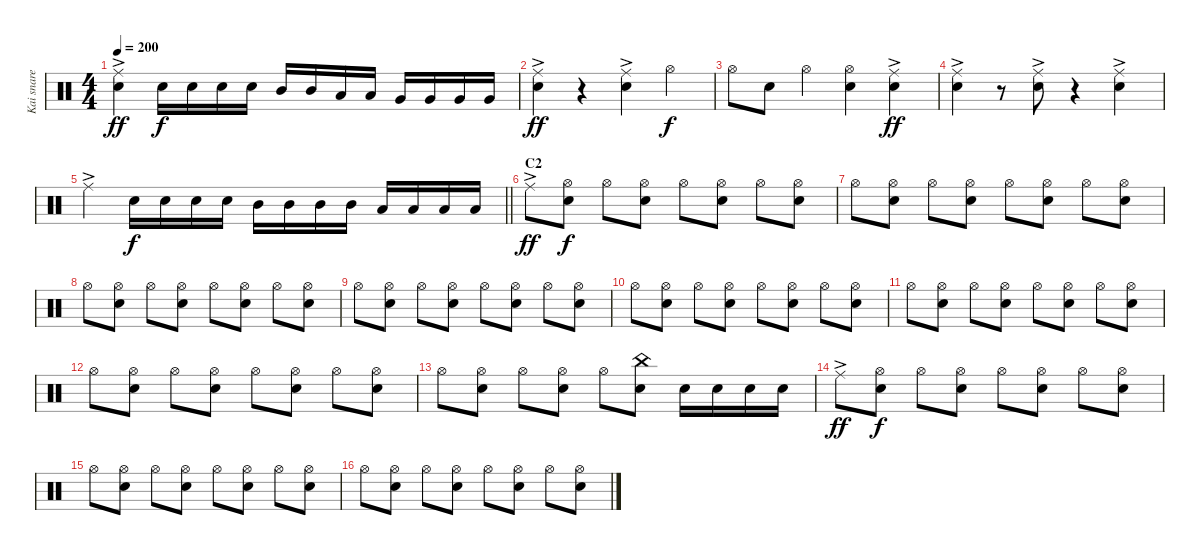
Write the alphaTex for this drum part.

\track ("Kai snare" "Kai snare") {instrument percussion}
\staff {score}
\articulation defaults
\ts (4 4)
\tempo 200
\clef neutral
\ks c
("Ride (middle)"{ac} "Snare (hit) 2").4{dy ff} "Snare (hit) 2".16{dy f} "Snare (hit) 2".16 "Snare (hit) 2".16 "Snare (hit) 2".16 "Mid Tom (hit)".16 "Mid Tom (hit)".16 "Low Tom (hit)".16 "Low Tom (hit)".16 "Very Low Tom (hit)".16 "Very Low Tom (hit)".16 "Very Low Tom (hit)".16 "Very Low Tom (hit)".16 |
("Ride (middle)"{ac} "Snare (hit) 2").4{dy ff} r.4 ("Ride (middle)"{ac} "Snare (hit) 2").4 "Hi-Hat (open)".4{dy f} |
"Hi-Hat (open)".8 "Snare (hit) 2".8 "Hi-Hat (open)".4 ("Hi-Hat (open)" "Snare (hit) 2").4 ("Ride (middle)"{ac} "Snare (hit) 2").4{dy ff} |
("Ride (middle)"{ac} "Snare (hit) 2").4 r.8 ("Ride (middle)"{ac} "Snare (hit) 2").8 r.4 ("Ride (middle)"{ac} "Snare (hit) 2").4 |
\barLineRight lightlight "Ride (middle)"{ac}.4 "Snare (hit) 2".16{dy f} "Snare (hit) 2".16 "Snare (hit) 2".16 "Snare (hit) 2".16 "Mid Tom (hit)".16 "Mid Tom (hit)".16 "Mid Tom (hit)".16 "Mid Tom (hit)".16 "Low Tom (hit)".16 "Low Tom (hit)".16 "Low Tom (hit)".16 "Low Tom (hit)".16
|
\section ("" "C2")
"Ride (middle)"{ac}.8{dy ff} ("Hi-Hat (open)" "Snare (hit) 2").8{dy f} "Hi-Hat (open)".8 ("Hi-Hat (open)" "Snare (hit) 2").8 "Hi-Hat (open)".8 ("Hi-Hat (open)" "Snare (hit) 2").8 "Hi-Hat (open)".8 ("Hi-Hat (open)" "Snare (hit) 2").8 |
"Hi-Hat (open)".8 ("Hi-Hat (open)" "Snare (hit) 2").8 "Hi-Hat (open)".8 ("Hi-Hat (open)" "Snare (hit) 2").8 "Hi-Hat (open)".8 ("Hi-Hat (open)" "Snare (hit) 2").8 "Hi-Hat (open)".8 ("Hi-Hat (open)" "Snare (hit) 2").8 |
"Hi-Hat (open)".8 ("Hi-Hat (open)" "Snare (hit) 2").8 "Hi-Hat (open)".8 ("Hi-Hat (open)" "Snare (hit) 2").8 "Hi-Hat (open)".8 ("Hi-Hat (open)" "Snare (hit) 2").8 "Hi-Hat (open)".8 ("Hi-Hat (open)" "Snare (hit) 2").8 |
"Hi-Hat (open)".8 ("Hi-Hat (open)" "Snare (hit) 2").8 "Hi-Hat (open)".8 ("Hi-Hat (open)" "Snare (hit) 2").8 "Hi-Hat (open)".8 ("Hi-Hat (open)" "Snare (hit) 2").8 "Hi-Hat (open)".8 ("Hi-Hat (open)" "Snare (hit) 2").8 |
"Hi-Hat (open)".8 ("Hi-Hat (open)" "Snare (hit) 2").8 "Hi-Hat (open)".8 ("Hi-Hat (open)" "Snare (hit) 2").8 "Hi-Hat (open)".8 ("Hi-Hat (open)" "Snare (hit) 2").8 "Hi-Hat (open)".8 ("Hi-Hat (open)" "Snare (hit) 2").8 |
"Hi-Hat (open)".8 ("Hi-Hat (open)" "Snare (hit) 2").8 "Hi-Hat (open)".8 ("Hi-Hat (open)" "Snare (hit) 2").8 "Hi-Hat (open)".8 ("Hi-Hat (open)" "Snare (hit) 2").8 "Hi-Hat (open)".8 ("Hi-Hat (open)" "Snare (hit) 2").8 |
"Hi-Hat (open)".8 ("Hi-Hat (open)" "Snare (hit) 2").8 "Hi-Hat (open)".8 ("Hi-Hat (open)" "Snare (hit) 2").8 "Hi-Hat (open)".8 ("Hi-Hat (open)" "Snare (hit) 2").8 "Hi-Hat (open)".8 ("Hi-Hat (open)" "Snare (hit) 2").8 |
"Hi-Hat (open)".8 ("Hi-Hat (open)" "Snare (hit) 2").8 "Hi-Hat (open)".8 ("Hi-Hat (open)" "Snare (hit) 2").8 "Hi-Hat (open)".8 ("China (hit)" "Snare (hit) 2").8 "Snare (hit) 2".16 "Snare (hit) 2".16 "Snare (hit) 2".16 "Snare (hit) 2".16 |
"Ride (middle)"{ac}.8{dy ff} ("Hi-Hat (open)" "Snare (hit) 2").8{dy f} "Hi-Hat (open)".8 ("Hi-Hat (open)" "Snare (hit) 2").8 "Hi-Hat (open)".8 ("Hi-Hat (open)" "Snare (hit) 2").8 "Hi-Hat (open)".8 ("Hi-Hat (open)" "Snare (hit) 2").8 |
"Hi-Hat (open)".8 ("Hi-Hat (open)" "Snare (hit) 2").8 "Hi-Hat (open)".8 ("Hi-Hat (open)" "Snare (hit) 2").8 "Hi-Hat (open)".8 ("Hi-Hat (open)" "Snare (hit) 2").8 "Hi-Hat (open)".8 ("Hi-Hat (open)" "Snare (hit) 2").8 |
"Hi-Hat (open)".8 ("Hi-Hat (open)" "Snare (hit) 2").8 "Hi-Hat (open)".8 ("Hi-Hat (open)" "Snare (hit) 2").8 "Hi-Hat (open)".8 ("Hi-Hat (open)" "Snare (hit) 2").8 "Hi-Hat (open)".8 ("Hi-Hat (open)" "Snare (hit) 2").8
